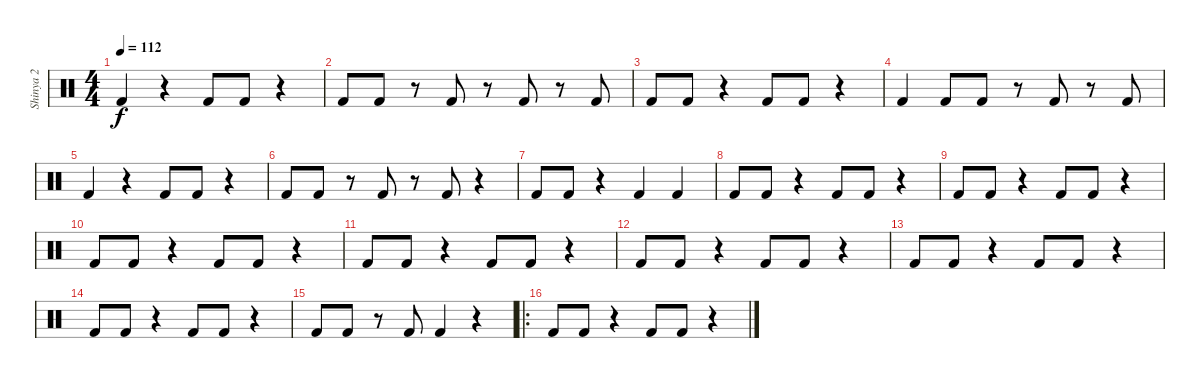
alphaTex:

\track ("Shinya 2" "Shinya 2") {instrument percussion}
\staff {score}
\articulation defaults
\ts (4 4)
\tempo 112
\clef neutral
\ks c "Kick (hit) 2".4{dy f}
r.4 "Kick (hit) 2".8 "Kick (hit) 2".8 r.4 |
"Kick (hit) 2".8 "Kick (hit) 2".8 r.8 "Kick (hit) 2".8 r.8 "Kick (hit) 2".8 r.8 "Kick (hit) 2".8 |
"Kick (hit) 2".8 "Kick (hit) 2".8 r.4 "Kick (hit) 2".8 "Kick (hit) 2".8 r.4 |
"Kick (hit) 2".4 "Kick (hit) 2".8 "Kick (hit) 2".8 r.8 "Kick (hit) 2".8 r.8 "Kick (hit) 2".8 |
"Kick (hit) 2".4 r.4 "Kick (hit) 2".8 "Kick (hit) 2".8 r.4 |
"Kick (hit) 2".8 "Kick (hit) 2".8 r.8 "Kick (hit) 2".8 r.8 "Kick (hit) 2".8 r.4 |
"Kick (hit) 2".8 "Kick (hit) 2".8 r.4 "Kick (hit) 2".4 "Kick (hit) 2".4 |
"Kick (hit) 2".8 "Kick (hit) 2".8 r.4 "Kick (hit) 2".8 "Kick (hit) 2".8 r.4 |
"Kick (hit) 2".8 "Kick (hit) 2".8 r.4 "Kick (hit) 2".8 "Kick (hit) 2".8 r.4 |
"Kick (hit) 2".8 "Kick (hit) 2".8 r.4 "Kick (hit) 2".8 "Kick (hit) 2".8 r.4 |
"Kick (hit) 2".8 "Kick (hit) 2".8 r.4 "Kick (hit) 2".8 "Kick (hit) 2".8 r.4 |
"Kick (hit) 2".8 "Kick (hit) 2".8 r.4 "Kick (hit) 2".8 "Kick (hit) 2".8 r.4 |
"Kick (hit) 2".8 "Kick (hit) 2".8 r.4 "Kick (hit) 2".8 "Kick (hit) 2".8 r.4 |
"Kick (hit) 2".8 "Kick (hit) 2".8 r.4 "Kick (hit) 2".8 "Kick (hit) 2".8 r.4 |
"Kick (hit) 2".8 "Kick (hit) 2".8 r.8 "Kick (hit) 2".8 "Kick (hit) 2".4 r.4 |
\ro "Kick (hit) 2".8 "Kick (hit) 2".8
r.4 "Kick (hit) 2".8 "Kick (hit) 2".8 r.4
